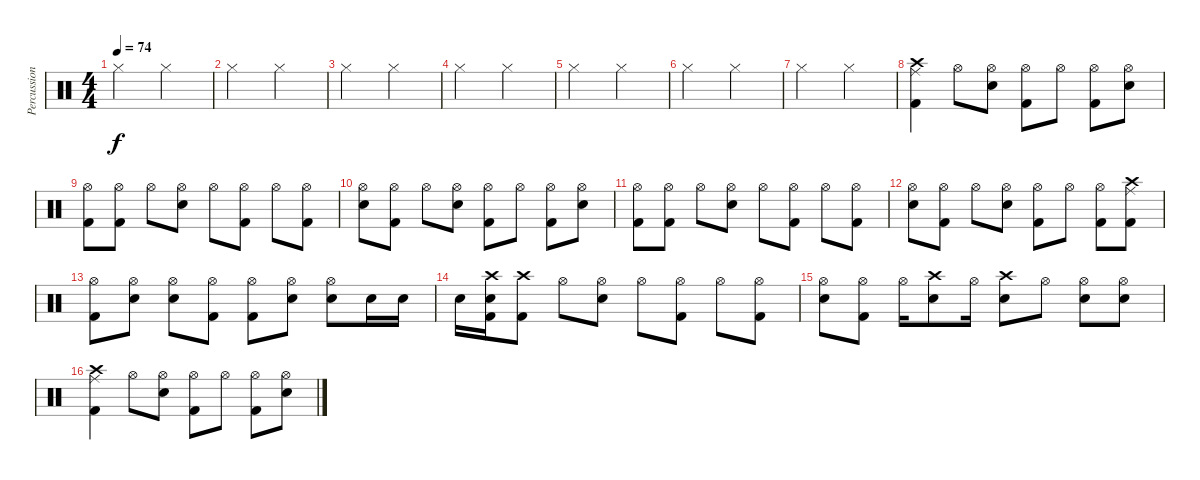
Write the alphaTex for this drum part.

\track ("Percussion" "Percussion") {instrument percussion}
\staff {score}
\articulation defaults
\ts (4 4)
\tempo 74
\clef neutral
\ks c "Hi-Hat (closed)".2{dy f} "Hi-Hat (closed)".2
|
"Hi-Hat (closed)".2 "Hi-Hat (closed)".2 |
"Hi-Hat (closed)".2 "Hi-Hat (closed)".2 |
"Hi-Hat (closed)".2 "Hi-Hat (closed)".2 |
"Hi-Hat (closed)".2 "Hi-Hat (closed)".2 |
"Hi-Hat (closed)".2 "Hi-Hat (closed)".2 |
"Hi-Hat (closed)".2 "Hi-Hat (closed)".2 |
("Ride (middle)" "Crash high (hit)" "Kick (hit) 2").4 "Hi-Hat (open)".8 ("Hi-Hat (open)" "Snare (hit) 2").8 ("Hi-Hat (open)" "Kick (hit) 2").8 "Hi-Hat (open)".8 ("Hi-Hat (open)" "Kick (hit) 2").8 ("Hi-Hat (open)" "Snare (hit) 2").8 |
("Hi-Hat (open)" "Kick (hit) 2").8 ("Hi-Hat (open)" "Kick (hit) 2").8 "Hi-Hat (open)".8 ("Hi-Hat (open)" "Snare (hit) 2").8 "Hi-Hat (open)".8 ("Hi-Hat (open)" "Kick (hit) 2").8 "Hi-Hat (open)".8 ("Hi-Hat (open)" "Kick (hit) 2").8 |
("Hi-Hat (open)" "Snare (hit) 2").8 ("Hi-Hat (open)" "Kick (hit) 2").8 "Hi-Hat (open)".8 ("Hi-Hat (open)" "Snare (hit) 2").8 ("Hi-Hat (open)" "Kick (hit) 2").8 "Hi-Hat (open)".8 ("Hi-Hat (open)" "Kick (hit) 2").8 ("Hi-Hat (open)" "Snare (hit) 2").8 |
("Hi-Hat (open)" "Kick (hit) 2").8 ("Hi-Hat (open)" "Kick (hit) 2").8 "Hi-Hat (open)".8 ("Hi-Hat (open)" "Snare (hit) 2").8 "Hi-Hat (open)".8 ("Hi-Hat (open)" "Kick (hit) 2").8 "Hi-Hat (open)".8 ("Hi-Hat (open)" "Kick (hit) 2").8 |
("Hi-Hat (open)" "Snare (hit) 2").8 ("Hi-Hat (open)" "Kick (hit) 2").8 "Hi-Hat (open)".8 ("Hi-Hat (open)" "Snare (hit) 2").8 ("Hi-Hat (open)" "Kick (hit) 2").8 "Hi-Hat (open)".8 ("Hi-Hat (open)" "Kick (hit) 2").8 ("Crash high (hit)" "Kick (hit) 2" "Ride (middle)").8 |
("Hi-Hat (open)" "Kick (hit) 2").8 ("Hi-Hat (open)" "Snare (hit) 2").8 ("Hi-Hat (open)" "Snare (hit) 2").8 ("Hi-Hat (open)" "Kick (hit) 2").8 ("Hi-Hat (open)" "Kick (hit) 2").8 ("Hi-Hat (open)" "Snare (hit) 2").8 ("Hi-Hat (open)" "Snare (hit) 2").8 "Snare (hit) 2".16 "Snare (hit) 2".16 |
"Snare (hit) 2".16 ("Crash high (hit)" "Kick (hit) 2" "Snare (hit) 2").16 ("Crash high (hit)" "Kick (hit) 2").8 "Hi-Hat (open)".8 ("Hi-Hat (open)" "Snare (hit) 2").8 "Hi-Hat (open)".8 ("Hi-Hat (open)" "Kick (hit) 2").8 "Hi-Hat (open)".8 ("Hi-Hat (open)" "Kick (hit) 2").8 |
("Hi-Hat (open)" "Snare (hit) 2").8 ("Hi-Hat (open)" "Kick (hit) 2").8 "Hi-Hat (open)".16 ("Crash high (hit)" "Snare (hit) 2").8 "Hi-Hat (open)".16 ("Crash high (hit)" "Snare (hit) 2").8 "Hi-Hat (open)".8 ("Hi-Hat (open)" "Snare (hit) 2").8 ("Hi-Hat (open)" "Snare (hit) 2").8 |
("Ride (middle)" "Crash high (hit)" "Kick (hit) 2").4 "Hi-Hat (open)".8 ("Hi-Hat (open)" "Snare (hit) 2").8 ("Hi-Hat (open)" "Kick (hit) 2").8 "Hi-Hat (open)".8 ("Hi-Hat (open)" "Kick (hit) 2").8 ("Hi-Hat (open)" "Snare (hit) 2").8
